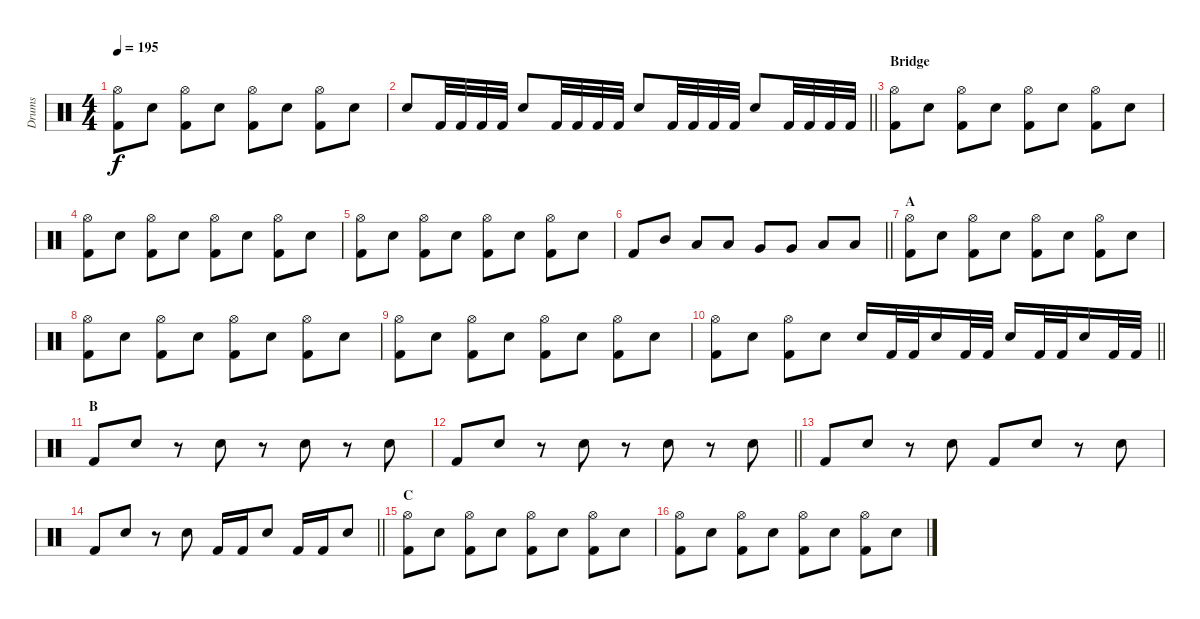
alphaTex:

\track ("Drums" "Drums") {instrument percussion}
\staff {score}
\articulation defaults
\ts (4 4)
\tempo 195
\clef neutral
\ks c
("Hi-Hat (open)" "Kick (hit) 2").8{dy f} "Electric Snare (hit)".8 ("Hi-Hat (open)" "Kick (hit) 2").8 "Electric Snare (hit)".8 ("Hi-Hat (open)" "Kick (hit) 2").8 "Electric Snare (hit)".8 ("Hi-Hat (open)" "Kick (hit) 2").8 "Electric Snare (hit)".8 |
\barLineRight lightlight "Electric Snare (hit)".8 "Kick (hit) 2".32 "Kick (hit) 2".32 "Kick (hit) 2".32 "Kick (hit) 2".32 "Electric Snare (hit)".8 "Kick (hit) 2".32 "Kick (hit) 2".32 "Kick (hit) 2".32 "Kick (hit) 2".32 "Electric Snare (hit)".8 "Kick (hit) 2".32 "Kick (hit) 2".32 "Kick (hit) 2".32 "Kick (hit) 2".32 "Electric Snare (hit)".8 "Kick (hit) 2".32 "Kick (hit) 2".32 "Kick (hit) 2".32 "Kick (hit) 2".32
|
\section ("" "Bridge")
("Hi-Hat (open)" "Kick (hit) 2").8 "Electric Snare (hit)".8 ("Hi-Hat (open)" "Kick (hit) 2").8 "Electric Snare (hit)".8 ("Hi-Hat (open)" "Kick (hit) 2").8 "Electric Snare (hit)".8 ("Hi-Hat (open)" "Kick (hit) 2").8 "Electric Snare (hit)".8 |
("Hi-Hat (open)" "Kick (hit) 2").8 "Electric Snare (hit)".8 ("Hi-Hat (open)" "Kick (hit) 2").8 "Electric Snare (hit)".8 ("Hi-Hat (open)" "Kick (hit) 2").8 "Electric Snare (hit)".8 ("Hi-Hat (open)" "Kick (hit) 2").8 "Electric Snare (hit)".8 |
("Hi-Hat (open)" "Kick (hit) 2").8 "Electric Snare (hit)".8 ("Hi-Hat (open)" "Kick (hit) 2").8 "Electric Snare (hit)".8 ("Hi-Hat (open)" "Kick (hit) 2").8 "Electric Snare (hit)".8 ("Hi-Hat (open)" "Kick (hit) 2").8 "Electric Snare (hit)".8 |
\barLineRight lightlight "Kick (hit) 2".8 "Mid Tom (hit)".8 "Low Tom (hit)".8 "Low Tom (hit)".8 "Very Low Tom (hit)".8 "Very Low Tom (hit)".8 "Low Floor Tom (hit)".8 "Low Floor Tom (hit)".8
|
\section ("" "A")
("Hi-Hat (open)" "Kick (hit) 2").8 "Electric Snare (hit)".8 ("Hi-Hat (open)" "Kick (hit) 2").8 "Electric Snare (hit)".8 ("Hi-Hat (open)" "Kick (hit) 2").8 "Electric Snare (hit)".8 ("Hi-Hat (open)" "Kick (hit) 2").8 "Electric Snare (hit)".8 |
("Hi-Hat (open)" "Kick (hit) 2").8 "Electric Snare (hit)".8 ("Hi-Hat (open)" "Kick (hit) 2").8 "Electric Snare (hit)".8 ("Hi-Hat (open)" "Kick (hit) 2").8 "Electric Snare (hit)".8 ("Hi-Hat (open)" "Kick (hit) 2").8 "Electric Snare (hit)".8 |
("Hi-Hat (open)" "Kick (hit) 2").8 "Electric Snare (hit)".8 ("Hi-Hat (open)" "Kick (hit) 2").8 "Electric Snare (hit)".8 ("Hi-Hat (open)" "Kick (hit) 2").8 "Electric Snare (hit)".8 ("Hi-Hat (open)" "Kick (hit) 2").8 "Electric Snare (hit)".8 |
\barLineRight lightlight
("Hi-Hat (open)" "Kick (hit) 2").8 "Electric Snare (hit)".8 ("Hi-Hat (open)" "Kick (hit) 2").8 "Electric Snare (hit)".8 "Electric Snare (hit)".16 "Kick (hit) 2".32 "Kick (hit) 2".32 "Electric Snare (hit)".16 "Kick (hit) 2".32 "Kick (hit) 2".32 "Electric Snare (hit)".16 "Kick (hit) 2".32 "Kick (hit) 2".32 "Electric Snare (hit)".16 "Kick (hit) 2".32 "Kick (hit) 2".32 |
\section ("" "B")
"Kick (hit) 2".8 "Electric Snare (hit)".8 r.8 "Electric Snare (hit)".8 r.8 "Electric Snare (hit)".8 r.8 "Electric Snare (hit)".8 |
\barLineRight lightlight "Kick (hit) 2".8 "Electric Snare (hit)".8
r.8 "Electric Snare (hit)".8 r.8 "Electric Snare (hit)".8 r.8 "Electric Snare (hit)".8 |
"Kick (hit) 2".8 "Electric Snare (hit)".8 r.8 "Electric Snare (hit)".8 "Kick (hit) 2".8 "Electric Snare (hit)".8 r.8 "Electric Snare (hit)".8 |
\barLineRight lightlight "Kick (hit) 2".8 "Electric Snare (hit)".8
r.8 "Electric Snare (hit)".8 "Kick (hit) 2".16 "Kick (hit) 2".16 "Electric Snare (hit)".8 "Kick (hit) 2".16 "Kick (hit) 2".16 "Electric Snare (hit)".8 |
\section ("" "C")
("Hi-Hat (open)" "Kick (hit) 2").8 "Electric Snare (hit)".8 ("Hi-Hat (open)" "Kick (hit) 2").8 "Electric Snare (hit)".8 ("Hi-Hat (open)" "Kick (hit) 2").8 "Electric Snare (hit)".8 ("Hi-Hat (open)" "Kick (hit) 2").8 "Electric Snare (hit)".8 |
("Hi-Hat (open)" "Kick (hit) 2").8 "Electric Snare (hit)".8 ("Hi-Hat (open)" "Kick (hit) 2").8 "Electric Snare (hit)".8 ("Hi-Hat (open)" "Kick (hit) 2").8 "Electric Snare (hit)".8 ("Hi-Hat (open)" "Kick (hit) 2").8 "Electric Snare (hit)".8
